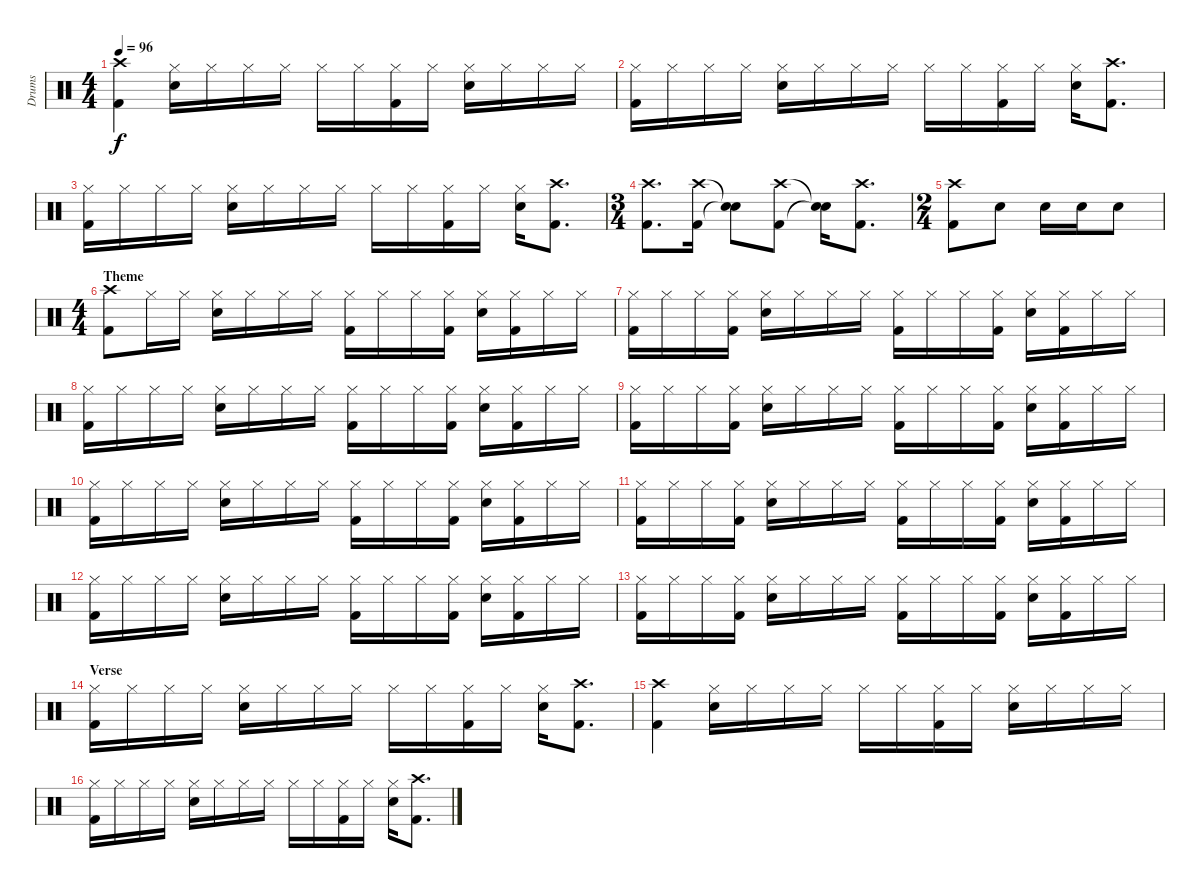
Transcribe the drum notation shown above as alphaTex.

\track ("Drums" "Drums") {instrument percussion}
\staff {score}
\articulation defaults
\ts (4 4)
\tempo 96
\clef neutral
\ks c
("Crash high (hit)" "Kick (hit) 2").4{dy f} ("Hi-Hat (closed)" "Electric Snare (hit)").16 "Hi-Hat (closed)".16 "Hi-Hat (closed)".16 "Hi-Hat (closed)".16 "Hi-Hat (closed)".16 "Hi-Hat (closed)".16 ("Hi-Hat (closed)" "Kick (hit) 2").16 "Hi-Hat (closed)".16 ("Hi-Hat (closed)" "Electric Snare (hit)").16 "Hi-Hat (closed)".16 "Hi-Hat (closed)".16 "Hi-Hat (closed)".16 |
("Hi-Hat (closed)" "Kick (hit) 2").16 "Hi-Hat (closed)".16 "Hi-Hat (closed)".16 "Hi-Hat (closed)".16 ("Hi-Hat (closed)" "Electric Snare (hit)").16 "Hi-Hat (closed)".16 "Hi-Hat (closed)".16 "Hi-Hat (closed)".16 "Hi-Hat (closed)".16 "Hi-Hat (closed)".16 ("Hi-Hat (closed)" "Kick (hit) 2").16 "Hi-Hat (closed)".16 ("Hi-Hat (closed)" "Electric Snare (hit)").16 ("Crash high (hit)" "Kick (hit) 2").8{d} |
("Hi-Hat (closed)" "Kick (hit) 2").16 "Hi-Hat (closed)".16 "Hi-Hat (closed)".16 "Hi-Hat (closed)".16 ("Hi-Hat (closed)" "Electric Snare (hit)").16 "Hi-Hat (closed)".16 "Hi-Hat (closed)".16 "Hi-Hat (closed)".16 "Hi-Hat (closed)".16 "Hi-Hat (closed)".16 ("Hi-Hat (closed)" "Kick (hit) 2").16 "Hi-Hat (closed)".16 ("Hi-Hat (closed)" "Electric Snare (hit)").16 ("Crash high (hit)" "Kick (hit) 2").8{d} |
\ts (3 4)
("Crash high (hit)" "Kick (hit) 2").8{d} ("Crash high (hit)" "Kick (hit) 2").16 ("Snare (hit)"{t} "Snare (hit)"{t}).8 ("Crash high (hit)" "Kick (hit) 2").8 ("Snare (hit)"{t} "Snare (hit)"{t}).16 ("Crash high (hit)" "Kick (hit) 2").8{d} |
\ts (2 4)
("Crash high (hit)" "Kick (hit) 2").8 "Electric Snare (hit)".8 "Electric Snare (hit)".16 "Electric Snare (hit)".16 "Electric Snare (hit)".8 |
\ts (4 4)
\section ("" "Theme")
("Crash high (hit)" "Kick (hit) 2").8 "Hi-Hat (closed)".16 "Hi-Hat (closed)".16 ("Hi-Hat (closed)" "Electric Snare (hit)").16 "Hi-Hat (closed)".16 "Hi-Hat (closed)".16 "Hi-Hat (closed)".16 ("Hi-Hat (closed)" "Kick (hit) 2").16 "Hi-Hat (closed)".16 "Hi-Hat (closed)".16 ("Hi-Hat (closed)" "Kick (hit) 2").16 ("Hi-Hat (closed)" "Electric Snare (hit)").16 ("Hi-Hat (closed)" "Kick (hit) 2").16 "Hi-Hat (closed)".16 "Hi-Hat (closed)".16 |
("Hi-Hat (closed)" "Kick (hit) 2").16 "Hi-Hat (closed)".16 "Hi-Hat (closed)".16 ("Hi-Hat (closed)" "Kick (hit) 2").16 ("Hi-Hat (closed)" "Electric Snare (hit)").16 "Hi-Hat (closed)".16 "Hi-Hat (closed)".16 "Hi-Hat (closed)".16 ("Hi-Hat (closed)" "Kick (hit) 2").16 "Hi-Hat (closed)".16 "Hi-Hat (closed)".16 ("Hi-Hat (closed)" "Kick (hit) 2").16 ("Hi-Hat (closed)" "Electric Snare (hit)").16 ("Hi-Hat (closed)" "Kick (hit) 2").16 "Hi-Hat (closed)".16 "Hi-Hat (closed)".16 |
("Hi-Hat (closed)" "Kick (hit) 2").16 "Hi-Hat (closed)".16 "Hi-Hat (closed)".16 "Hi-Hat (closed)".16 ("Hi-Hat (closed)" "Electric Snare (hit)").16 "Hi-Hat (closed)".16 "Hi-Hat (closed)".16 "Hi-Hat (closed)".16 ("Hi-Hat (closed)" "Kick (hit) 2").16 "Hi-Hat (closed)".16 "Hi-Hat (closed)".16 ("Hi-Hat (closed)" "Kick (hit) 2").16 ("Hi-Hat (closed)" "Electric Snare (hit)").16 ("Hi-Hat (closed)" "Kick (hit) 2").16 "Hi-Hat (closed)".16 "Hi-Hat (closed)".16 |
("Hi-Hat (closed)" "Kick (hit) 2").16 "Hi-Hat (closed)".16 "Hi-Hat (closed)".16 ("Hi-Hat (closed)" "Kick (hit) 2").16 ("Hi-Hat (closed)" "Electric Snare (hit)").16 "Hi-Hat (closed)".16 "Hi-Hat (closed)".16 "Hi-Hat (closed)".16 ("Hi-Hat (closed)" "Kick (hit) 2").16 "Hi-Hat (closed)".16 "Hi-Hat (closed)".16 ("Hi-Hat (closed)" "Kick (hit) 2").16 ("Hi-Hat (closed)" "Electric Snare (hit)").16 ("Hi-Hat (closed)" "Kick (hit) 2").16 "Hi-Hat (closed)".16 "Hi-Hat (closed)".16 |
("Hi-Hat (closed)" "Kick (hit) 2").16 "Hi-Hat (closed)".16 "Hi-Hat (closed)".16 "Hi-Hat (closed)".16 ("Hi-Hat (closed)" "Electric Snare (hit)").16 "Hi-Hat (closed)".16 "Hi-Hat (closed)".16 "Hi-Hat (closed)".16 ("Hi-Hat (closed)" "Kick (hit) 2").16 "Hi-Hat (closed)".16 "Hi-Hat (closed)".16 ("Hi-Hat (closed)" "Kick (hit) 2").16 ("Hi-Hat (closed)" "Electric Snare (hit)").16 ("Hi-Hat (closed)" "Kick (hit) 2").16 "Hi-Hat (closed)".16 "Hi-Hat (closed)".16 |
("Hi-Hat (closed)" "Kick (hit) 2").16 "Hi-Hat (closed)".16 "Hi-Hat (closed)".16 ("Hi-Hat (closed)" "Kick (hit) 2").16 ("Hi-Hat (closed)" "Electric Snare (hit)").16 "Hi-Hat (closed)".16 "Hi-Hat (closed)".16 "Hi-Hat (closed)".16 ("Hi-Hat (closed)" "Kick (hit) 2").16 "Hi-Hat (closed)".16 "Hi-Hat (closed)".16 ("Hi-Hat (closed)" "Kick (hit) 2").16 ("Hi-Hat (closed)" "Electric Snare (hit)").16 ("Hi-Hat (closed)" "Kick (hit) 2").16 "Hi-Hat (closed)".16 "Hi-Hat (closed)".16 |
("Hi-Hat (closed)" "Kick (hit) 2").16 "Hi-Hat (closed)".16 "Hi-Hat (closed)".16 "Hi-Hat (closed)".16 ("Hi-Hat (closed)" "Electric Snare (hit)").16 "Hi-Hat (closed)".16 "Hi-Hat (closed)".16 "Hi-Hat (closed)".16 ("Hi-Hat (closed)" "Kick (hit) 2").16 "Hi-Hat (closed)".16 "Hi-Hat (closed)".16 ("Hi-Hat (closed)" "Kick (hit) 2").16 ("Hi-Hat (closed)" "Electric Snare (hit)").16 ("Hi-Hat (closed)" "Kick (hit) 2").16 "Hi-Hat (closed)".16 "Hi-Hat (closed)".16 |
("Hi-Hat (closed)" "Kick (hit) 2").16 "Hi-Hat (closed)".16 "Hi-Hat (closed)".16 ("Hi-Hat (closed)" "Kick (hit) 2").16 ("Hi-Hat (closed)" "Electric Snare (hit)").16 "Hi-Hat (closed)".16 "Hi-Hat (closed)".16 "Hi-Hat (closed)".16 ("Hi-Hat (closed)" "Kick (hit) 2").16 "Hi-Hat (closed)".16 "Hi-Hat (closed)".16 ("Hi-Hat (closed)" "Kick (hit) 2").16 ("Hi-Hat (closed)" "Electric Snare (hit)").16 ("Hi-Hat (closed)" "Kick (hit) 2").16 "Hi-Hat (closed)".16 "Hi-Hat (closed)".16 |
\section ("" "Verse")
("Hi-Hat (closed)" "Kick (hit) 2").16 "Hi-Hat (closed)".16 "Hi-Hat (closed)".16 "Hi-Hat (closed)".16 ("Hi-Hat (closed)" "Electric Snare (hit)").16 "Hi-Hat (closed)".16 "Hi-Hat (closed)".16 "Hi-Hat (closed)".16 "Hi-Hat (closed)".16 "Hi-Hat (closed)".16 ("Hi-Hat (closed)" "Kick (hit) 2").16 "Hi-Hat (closed)".16 ("Hi-Hat (closed)" "Electric Snare (hit)").16 ("Crash high (hit)" "Kick (hit) 2").8{d} |
("Crash high (hit)" "Kick (hit) 2").4 ("Hi-Hat (closed)" "Electric Snare (hit)").16 "Hi-Hat (closed)".16 "Hi-Hat (closed)".16 "Hi-Hat (closed)".16 "Hi-Hat (closed)".16 "Hi-Hat (closed)".16 ("Hi-Hat (closed)" "Kick (hit) 2").16 "Hi-Hat (closed)".16 ("Hi-Hat (closed)" "Electric Snare (hit)").16 "Hi-Hat (closed)".16 "Hi-Hat (closed)".16 "Hi-Hat (closed)".16 |
("Hi-Hat (closed)" "Kick (hit) 2").16 "Hi-Hat (closed)".16 "Hi-Hat (closed)".16 "Hi-Hat (closed)".16 ("Hi-Hat (closed)" "Electric Snare (hit)").16 "Hi-Hat (closed)".16 "Hi-Hat (closed)".16 "Hi-Hat (closed)".16 "Hi-Hat (closed)".16 "Hi-Hat (closed)".16 ("Hi-Hat (closed)" "Kick (hit) 2").16 "Hi-Hat (closed)".16 ("Hi-Hat (closed)" "Electric Snare (hit)").16 ("Crash high (hit)" "Kick (hit) 2").8{d}
